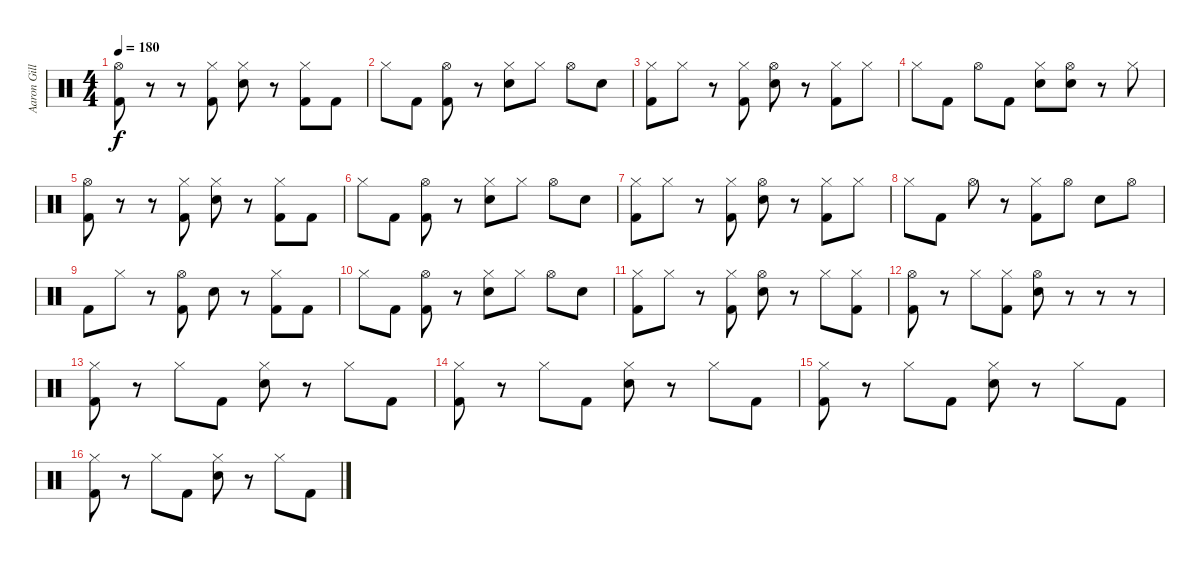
\track ("Aaron Gillespie 1" "Aaron Gill") {instrument percussion}
\staff {score}
\articulation defaults
\ts (4 4)
\tempo 180
\clef neutral
\ks c
("Hi-Hat (open)" "Kick (hit) 2").8{dy f} r.8 r.8 ("Hi-Hat (closed)" "Kick (hit) 2").8 ("Hi-Hat (closed)" "Snare (hit) 2").8 r.8 ("Hi-Hat (closed)" "Kick (hit) 2").8 "Kick (hit) 2".8 |
"Hi-Hat (closed)".8 "Kick (hit) 2".8 ("Hi-Hat (open)" "Kick (hit) 2").8 r.8 ("Hi-Hat (closed)" "Snare (hit) 2").8 "Hi-Hat (closed)".8 "Hi-Hat (open)".8 "Snare (hit) 2".8 |
("Hi-Hat (closed)" "Kick (hit) 2").8 "Hi-Hat (closed)".8 r.8 ("Hi-Hat (closed)" "Kick (hit) 2").8 ("Hi-Hat (open)" "Snare (hit) 2").8 r.8 ("Hi-Hat (closed)" "Kick (hit) 2").8 "Hi-Hat (closed)".8 |
"Hi-Hat (closed)".8 "Kick (hit) 2".8 "Hi-Hat (open)".8 "Kick (hit) 2".8 ("Hi-Hat (closed)" "Snare (hit) 2").8 ("Hi-Hat (open)" "Snare (hit) 2").8 r.8 "Hi-Hat (closed)".8 |
("Hi-Hat (open)" "Kick (hit) 2").8 r.8 r.8 ("Hi-Hat (closed)" "Kick (hit) 2").8 ("Hi-Hat (closed)" "Snare (hit) 2").8 r.8 ("Hi-Hat (closed)" "Kick (hit) 2").8 "Kick (hit) 2".8 |
"Hi-Hat (closed)".8 "Kick (hit) 2".8 ("Hi-Hat (open)" "Kick (hit) 2").8 r.8 ("Hi-Hat (closed)" "Snare (hit) 2").8 "Hi-Hat (closed)".8 "Hi-Hat (open)".8 "Snare (hit) 2".8 |
("Hi-Hat (closed)" "Kick (hit) 2").8 "Hi-Hat (closed)".8 r.8 ("Hi-Hat (closed)" "Kick (hit) 2").8 ("Hi-Hat (open)" "Snare (hit) 2").8 r.8 ("Hi-Hat (closed)" "Kick (hit) 2").8 "Hi-Hat (closed)".8 |
"Hi-Hat (closed)".8 "Kick (hit) 2".8 "Hi-Hat (open)".8 r.8 ("Hi-Hat (closed)" "Kick (hit) 2").8 "Hi-Hat (open)".8 "Snare (hit) 2".8 "Hi-Hat (open)".8 |
"Kick (hit) 2".8 "Hi-Hat (closed)".8 r.8 ("Hi-Hat (open)" "Kick (hit) 2").8 "Snare (hit) 2".8 r.8 ("Hi-Hat (closed)" "Kick (hit) 2").8 "Kick (hit) 2".8 |
"Hi-Hat (closed)".8 "Kick (hit) 2".8 ("Hi-Hat (open)" "Kick (hit) 2").8 r.8 ("Hi-Hat (closed)" "Snare (hit) 2").8 "Hi-Hat (closed)".8 "Hi-Hat (open)".8 "Snare (hit) 2".8 |
("Hi-Hat (closed)" "Kick (hit) 2").8 "Hi-Hat (closed)".8 r.8 ("Hi-Hat (closed)" "Kick (hit) 2").8 ("Hi-Hat (open)" "Snare (hit) 2").8 r.8 "Hi-Hat (closed)".8 ("Hi-Hat (closed)" "Kick (hit) 2").8 |
("Hi-Hat (open)" "Kick (hit) 2").8 r.8 "Hi-Hat (closed)".8 ("Hi-Hat (closed)" "Kick (hit) 2").8 ("Hi-Hat (open)" "Snare (hit) 2").8 r.8 r.8 r.8 |
("Hi-Hat (closed)" "Kick (hit) 2").8 r.8 "Hi-Hat (closed)".8 "Kick (hit) 2".8 ("Hi-Hat (closed)" "Snare (hit) 2").8 r.8 "Hi-Hat (closed)".8 "Kick (hit) 2".8 |
("Hi-Hat (closed)" "Kick (hit) 2").8 r.8 "Hi-Hat (closed)".8 "Kick (hit) 2".8 ("Hi-Hat (closed)" "Snare (hit) 2").8 r.8 "Hi-Hat (closed)".8 "Kick (hit) 2".8 |
("Hi-Hat (closed)" "Kick (hit) 2").8 r.8 "Hi-Hat (closed)".8 "Kick (hit) 2".8 ("Hi-Hat (closed)" "Snare (hit) 2").8 r.8 "Hi-Hat (closed)".8 "Kick (hit) 2".8 |
("Hi-Hat (closed)" "Kick (hit) 2").8 r.8 "Hi-Hat (closed)".8 "Kick (hit) 2".8 ("Hi-Hat (closed)" "Snare (hit) 2").8 r.8 "Hi-Hat (closed)".8 "Kick (hit) 2".8
